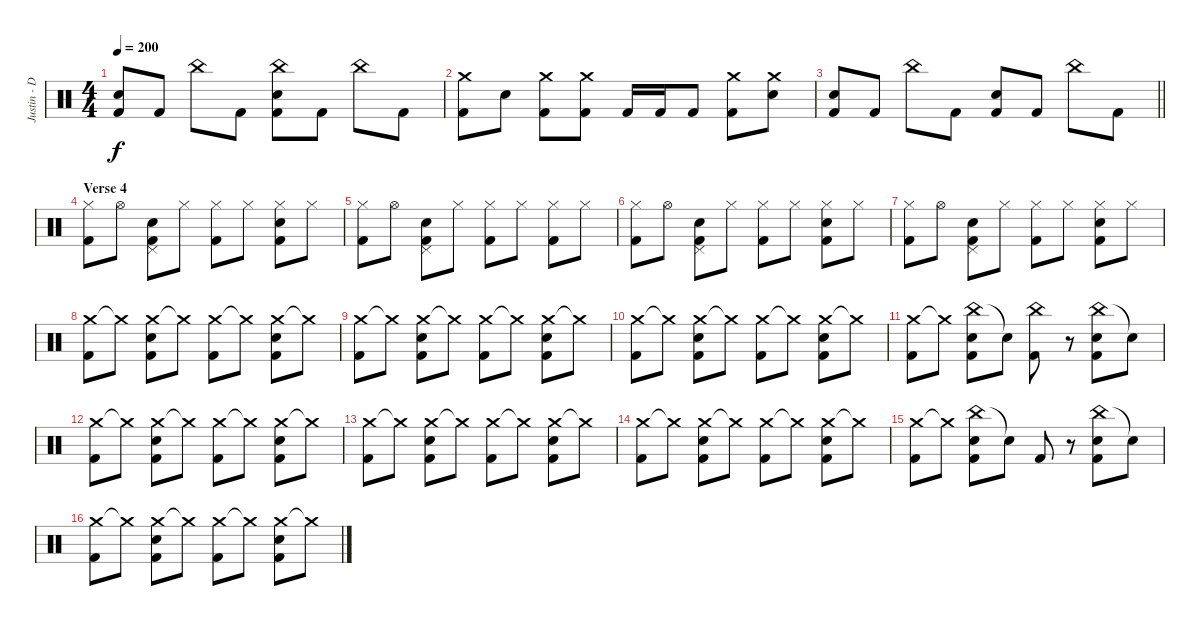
\track ("Justin - Drums" "Justin - D") {instrument percussion}
\staff {score}
\articulation defaults
\ts (4 4)
\tempo 200
\clef neutral
\ks c
("Snare (hit) 2" "Kick (hit) 2").8{dy f} "Kick (hit) 2".8 "China (hit)".8 "Kick (hit) 2".8 ("China (hit)" "Snare (hit) 2" "Kick (hit) 2").8 "Kick (hit) 2".8 "China (hit)".8 "Kick (hit) 2".8 |
("Crash medium (hit)" "Kick (hit) 2").8 "Snare (hit) 2".8 ("Crash medium (hit)" "Kick (hit) 2").8 ("Crash medium (hit)" "Kick (hit) 2").8 "Kick (hit) 2".16 "Kick (hit) 2".16 "Kick (hit) 2".8 ("Crash medium (hit)" "Kick (hit) 2").8 ("Crash medium (hit)" "Snare (hit) 2").8 |
\barLineRight lightlight
("Snare (hit) 2" "Kick (hit) 2").8 "Kick (hit) 2".8 "China (hit)".8 "Kick (hit) 2".8 ("Snare (hit) 2" "Kick (hit) 2").8 "Kick (hit) 2".8 "China (hit)".8 "Kick (hit) 2".8 |
\section ("" "Verse 4")
("Hi-Hat (closed)" "Kick (hit) 2").8 "Hi-Hat (open)".8 ("Pedal Hi-Hat (hit)" "Snare (hit) 2" "Kick (hit) 2").8 "Hi-Hat (closed)".8 ("Hi-Hat (closed)" "Kick (hit) 2").8 "Hi-Hat (closed)".8 ("Hi-Hat (closed)" "Snare (hit) 2" "Kick (hit) 2").8 "Hi-Hat (closed)".8 |
("Hi-Hat (closed)" "Kick (hit) 2").8 "Hi-Hat (open)".8 ("Pedal Hi-Hat (hit)" "Snare (hit) 2" "Kick (hit) 2").8 "Hi-Hat (closed)".8 ("Hi-Hat (closed)" "Kick (hit) 2").8 "Hi-Hat (closed)".8 ("Hi-Hat (closed)" "Kick (hit) 2").8 "Hi-Hat (closed)".8 |
("Hi-Hat (closed)" "Kick (hit) 2").8 "Hi-Hat (open)".8 ("Pedal Hi-Hat (hit)" "Snare (hit) 2" "Kick (hit) 2").8 "Hi-Hat (closed)".8 ("Hi-Hat (closed)" "Kick (hit) 2").8 "Hi-Hat (closed)".8 ("Hi-Hat (closed)" "Snare (hit) 2" "Kick (hit) 2").8 "Hi-Hat (closed)".8 |
("Hi-Hat (closed)" "Kick (hit) 2").8 "Hi-Hat (open)".8 ("Pedal Hi-Hat (hit)" "Snare (hit) 2" "Kick (hit) 2").8 "Hi-Hat (closed)".8 ("Hi-Hat (closed)" "Kick (hit) 2").8 "Hi-Hat (closed)".8 ("Hi-Hat (closed)" "Snare (hit) 2" "Kick (hit) 2").8 "Hi-Hat (closed)".8 |
("Crash medium (hit)" "Kick (hit) 2").8 "Crash medium (hit)"{t}.8 ("Crash medium (hit)" "Snare (hit) 2" "Kick (hit) 2").8 "Crash medium (hit)"{t}.8 ("Crash medium (hit)" "Kick (hit) 2").8 "Crash medium (hit)"{t}.8 ("Crash medium (hit)" "Snare (hit) 2" "Kick (hit) 2").8 "Crash medium (hit)"{t}.8 |
("Crash medium (hit)" "Kick (hit) 2").8 "Crash medium (hit)"{t}.8 ("Crash medium (hit)" "Snare (hit) 2" "Kick (hit) 2").8 "Crash medium (hit)"{t}.8 ("Crash medium (hit)" "Kick (hit) 2").8 "Crash medium (hit)"{t}.8 ("Crash medium (hit)" "Snare (hit) 2" "Kick (hit) 2").8 "Crash medium (hit)"{t}.8 |
("Crash medium (hit)" "Kick (hit) 2").8 "Crash medium (hit)"{t}.8 ("Crash medium (hit)" "Snare (hit) 2" "Kick (hit) 2").8 "Crash medium (hit)"{t}.8 ("Crash medium (hit)" "Kick (hit) 2").8 "Crash medium (hit)"{t}.8 ("Crash medium (hit)" "Snare (hit) 2" "Kick (hit) 2").8 "Crash medium (hit)"{t}.8 |
("Crash medium (hit)" "Kick (hit) 2").8 "Crash medium (hit)"{t}.8 ("China (hit)" "Snare (hit) 2" "Kick (hit) 2").8 "Snare (hit)"{t}.8 ("China (hit)" "Kick (hit) 2").8 r.8 ("China (hit)" "Snare (hit) 2" "Kick (hit) 2").8 "Snare (hit)"{t}.8 |
("Crash medium (hit)" "Kick (hit) 2").8 "Crash medium (hit)"{t}.8 ("Crash medium (hit)" "Snare (hit) 2" "Kick (hit) 2").8 "Crash medium (hit)"{t}.8 ("Crash medium (hit)" "Kick (hit) 2").8 "Crash medium (hit)"{t}.8 ("Crash medium (hit)" "Snare (hit) 2" "Kick (hit) 2").8 "Crash medium (hit)"{t}.8 |
("Crash medium (hit)" "Kick (hit) 2").8 "Crash medium (hit)"{t}.8 ("Crash medium (hit)" "Snare (hit) 2" "Kick (hit) 2").8 "Crash medium (hit)"{t}.8 ("Crash medium (hit)" "Kick (hit) 2").8 "Crash medium (hit)"{t}.8 ("Crash medium (hit)" "Snare (hit) 2" "Kick (hit) 2").8 "Crash medium (hit)"{t}.8 |
("Crash medium (hit)" "Kick (hit) 2").8 "Crash medium (hit)"{t}.8 ("Crash medium (hit)" "Snare (hit) 2" "Kick (hit) 2").8 "Crash medium (hit)"{t}.8 ("Crash medium (hit)" "Kick (hit) 2").8 "Crash medium (hit)"{t}.8 ("Crash medium (hit)" "Snare (hit) 2" "Kick (hit) 2").8 "Crash medium (hit)"{t}.8 |
("Crash medium (hit)" "Kick (hit) 2").8 "Crash medium (hit)"{t}.8 ("China (hit)" "Snare (hit) 2" "Kick (hit) 2").8 "Snare (hit)"{t}.8 "Kick (hit) 2".8 r.8 ("China (hit)" "Snare (hit) 2" "Kick (hit) 2").8 "Snare (hit)"{t}.8 |
("Crash medium (hit)" "Kick (hit) 2").8 "Crash medium (hit)"{t}.8 ("Crash medium (hit)" "Snare (hit) 2" "Kick (hit) 2").8 "Crash medium (hit)"{t}.8 ("Crash medium (hit)" "Kick (hit) 2").8 "Crash medium (hit)"{t}.8 ("Crash medium (hit)" "Snare (hit) 2" "Kick (hit) 2").8 "Crash medium (hit)"{t}.8
